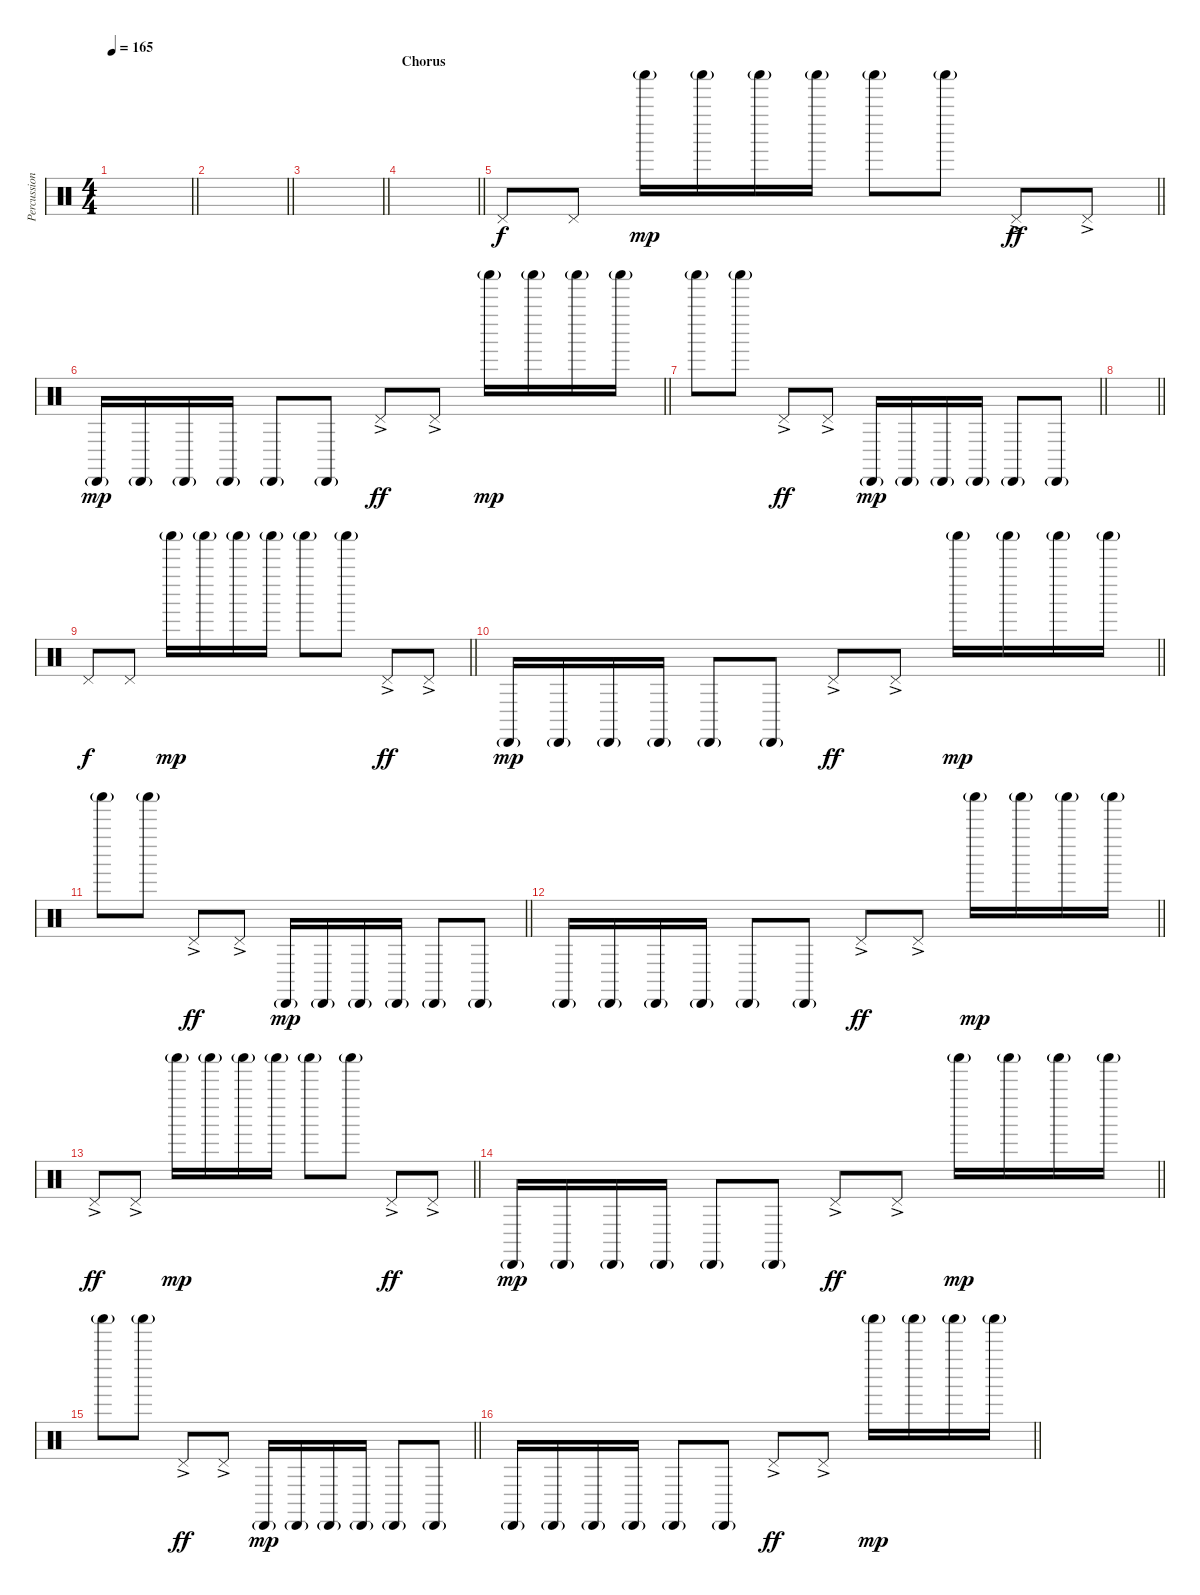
\track ("Percussion" "Percussion") {instrument percussion}
\staff {score}
\articulation defaults
\ts (4 4)
\tempo 165
\clef neutral
\barLineRight lightlight
\ks c
|
\barLineRight lightlight
|
\barLineRight lightlight
|
\section ("" "Chorus")
\barLineRight lightlight
|
\barLineRight lightlight "Pedal Hi-Hat (hit)".8{dy f} "Pedal Hi-Hat (hit)".8 "Shaker (hit)"{g}.16{dy mp} "Shaker (hit)"{g}.16 "Shaker (hit)"{g}.16 "Shaker (hit)"{g}.16 "Shaker (hit)"{g}.8 "Shaker (hit)"{g}.8 "Pedal Hi-Hat (hit)"{ac}.8{dy ff} "Pedal Hi-Hat (hit)"{ac}.8
|
\barLineRight lightlight "Cabasa (hit)"{g}.16{dy mp} "Cabasa (hit)"{g}.16 "Cabasa (hit)"{g}.16 "Cabasa (hit)"{g}.16 "Cabasa (hit)"{g}.8 "Cabasa (hit)"{g}.8 "Pedal Hi-Hat (hit)"{ac}.8{dy ff} "Pedal Hi-Hat (hit)"{ac}.8 "Shaker (hit)"{g}.16{dy mp} "Shaker (hit)"{g}.16 "Shaker (hit)"{g}.16 "Shaker (hit)"{g}.16
|
\barLineRight lightlight "Shaker (hit)"{g}.8 "Shaker (hit)"{g}.8 "Pedal Hi-Hat (hit)"{ac}.8{dy ff} "Pedal Hi-Hat (hit)"{ac}.8 "Cabasa (hit)"{g}.16{dy mp} "Cabasa (hit)"{g}.16 "Cabasa (hit)"{g}.16 "Cabasa (hit)"{g}.16 "Cabasa (hit)"{g}.8 "Cabasa (hit)"{g}.8
|
\barLineRight lightlight
|
\barLineRight lightlight "Pedal Hi-Hat (hit)".8{dy f} "Pedal Hi-Hat (hit)".8 "Shaker (hit)"{g}.16{dy mp} "Shaker (hit)"{g}.16 "Shaker (hit)"{g}.16 "Shaker (hit)"{g}.16 "Shaker (hit)"{g}.8 "Shaker (hit)"{g}.8 "Pedal Hi-Hat (hit)"{ac}.8{dy ff} "Pedal Hi-Hat (hit)"{ac}.8
|
\barLineRight lightlight "Cabasa (hit)"{g}.16{dy mp} "Cabasa (hit)"{g}.16 "Cabasa (hit)"{g}.16 "Cabasa (hit)"{g}.16 "Cabasa (hit)"{g}.8 "Cabasa (hit)"{g}.8 "Pedal Hi-Hat (hit)"{ac}.8{dy ff} "Pedal Hi-Hat (hit)"{ac}.8 "Shaker (hit)"{g}.16{dy mp} "Shaker (hit)"{g}.16 "Shaker (hit)"{g}.16 "Shaker (hit)"{g}.16
|
\barLineRight lightlight "Shaker (hit)"{g}.8 "Shaker (hit)"{g}.8 "Pedal Hi-Hat (hit)"{ac}.8{dy ff} "Pedal Hi-Hat (hit)"{ac}.8 "Cabasa (hit)"{g}.16{dy mp} "Cabasa (hit)"{g}.16 "Cabasa (hit)"{g}.16 "Cabasa (hit)"{g}.16 "Cabasa (hit)"{g}.8 "Cabasa (hit)"{g}.8
|
\barLineRight lightlight "Cabasa (hit)"{g}.16 "Cabasa (hit)"{g}.16 "Cabasa (hit)"{g}.16 "Cabasa (hit)"{g}.16 "Cabasa (hit)"{g}.8 "Cabasa (hit)"{g}.8 "Pedal Hi-Hat (hit)"{ac}.8{dy ff} "Pedal Hi-Hat (hit)"{ac}.8 "Shaker (hit)"{g}.16{dy mp} "Shaker (hit)"{g}.16 "Shaker (hit)"{g}.16 "Shaker (hit)"{g}.16
|
\barLineRight lightlight "Pedal Hi-Hat (hit)"{ac}.8{dy ff} "Pedal Hi-Hat (hit)"{ac}.8 "Shaker (hit)"{g}.16{dy mp} "Shaker (hit)"{g}.16 "Shaker (hit)"{g}.16 "Shaker (hit)"{g}.16 "Shaker (hit)"{g}.8 "Shaker (hit)"{g}.8 "Pedal Hi-Hat (hit)"{ac}.8{dy ff} "Pedal Hi-Hat (hit)"{ac}.8
|
\barLineRight lightlight "Cabasa (hit)"{g}.16{dy mp} "Cabasa (hit)"{g}.16 "Cabasa (hit)"{g}.16 "Cabasa (hit)"{g}.16 "Cabasa (hit)"{g}.8 "Cabasa (hit)"{g}.8 "Pedal Hi-Hat (hit)"{ac}.8{dy ff} "Pedal Hi-Hat (hit)"{ac}.8 "Shaker (hit)"{g}.16{dy mp} "Shaker (hit)"{g}.16 "Shaker (hit)"{g}.16 "Shaker (hit)"{g}.16
|
\barLineRight lightlight "Shaker (hit)"{g}.8 "Shaker (hit)"{g}.8 "Pedal Hi-Hat (hit)"{ac}.8{dy ff} "Pedal Hi-Hat (hit)"{ac}.8 "Cabasa (hit)"{g}.16{dy mp} "Cabasa (hit)"{g}.16 "Cabasa (hit)"{g}.16 "Cabasa (hit)"{g}.16 "Cabasa (hit)"{g}.8 "Cabasa (hit)"{g}.8
|
\barLineRight lightlight "Cabasa (hit)"{g}.16 "Cabasa (hit)"{g}.16 "Cabasa (hit)"{g}.16 "Cabasa (hit)"{g}.16 "Cabasa (hit)"{g}.8 "Cabasa (hit)"{g}.8 "Pedal Hi-Hat (hit)"{ac}.8{dy ff} "Pedal Hi-Hat (hit)"{ac}.8 "Shaker (hit)"{g}.16{dy mp} "Shaker (hit)"{g}.16 "Shaker (hit)"{g}.16 "Shaker (hit)"{g}.16
